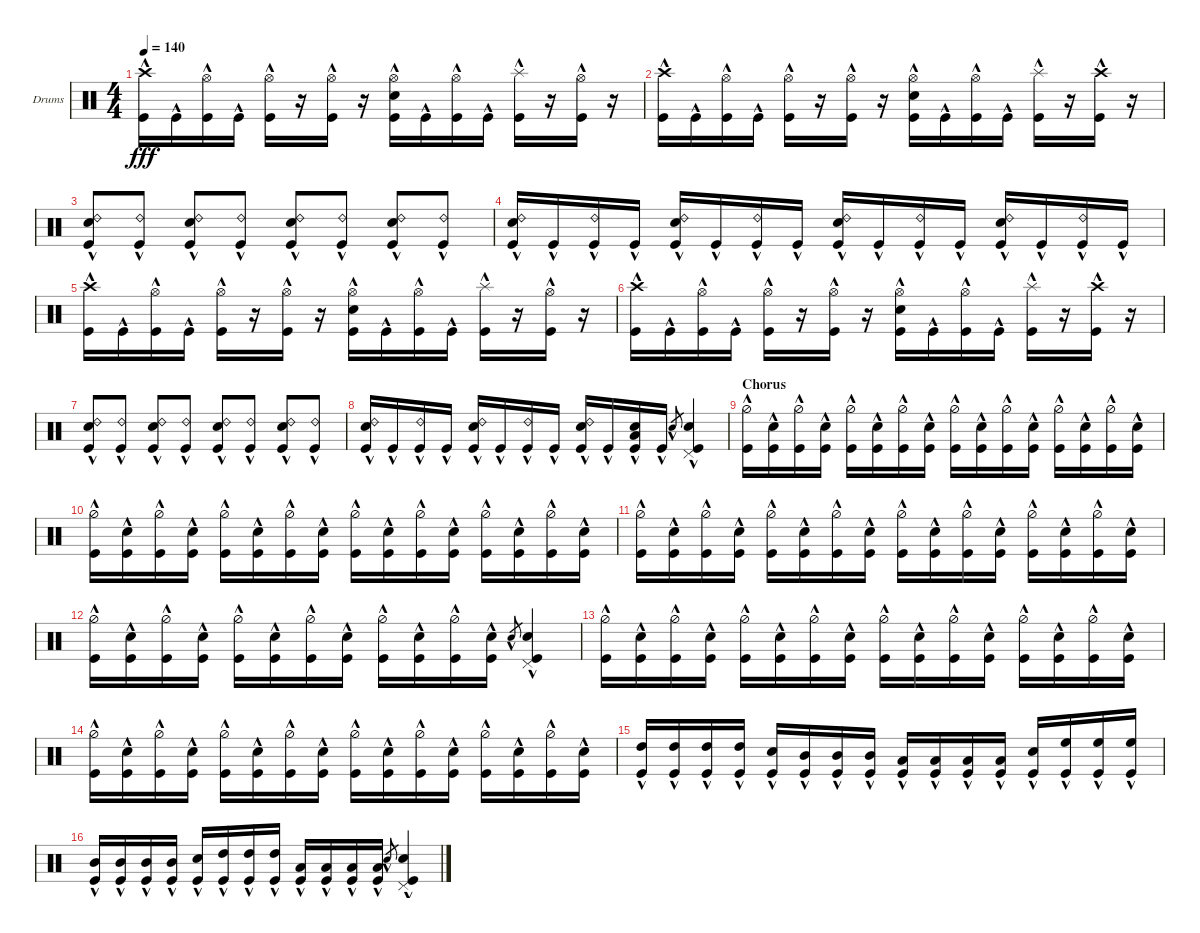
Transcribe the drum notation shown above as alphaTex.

\bracketExtendMode groupsimilarinstruments
\firstSystemTrackNameOrientation horizontal
\otherSystemsTrackNameOrientation horizontal
\track ("BigMc" "Drums") {instrument percussion}
\staff {score}
\articulation defaults
\ts (4 4)
\tempo 140
\clef neutral
\ks c
("Kick (hit)"{hac} "Crash high (hit)"{hac}).16{dy fff} "Kick (hit)"{hac}.16 ("Kick (hit)"{hac} "Hi-Hat (open)"{hac}).16 "Kick (hit)"{hac}.16 ("Kick (hit)"{hac} "Hi-Hat (open)"{hac}).16 r.16 ("Kick (hit)"{hac} "Hi-Hat (open)"{hac}).16 r.16 ("Kick (hit)"{hac} "Snare (hit) 2"{hac} "Hi-Hat (open)"{hac}).16 "Kick (hit)"{hac}.16 ("Kick (hit)"{hac} "Hi-Hat (open)"{hac}).16 "Kick (hit)"{hac}.16 ("Kick (hit)"{hac} "Splash (hit)"{hac}).16 r.16 ("Kick (hit)"{hac} "Hi-Hat (open)"{hac}).16 r.16 |
("Kick (hit)"{hac} "Crash high (hit)"{hac}).16 "Kick (hit)"{hac}.16 ("Kick (hit)"{hac} "Hi-Hat (open)"{hac}).16 "Kick (hit)"{hac}.16 ("Kick (hit)"{hac} "Hi-Hat (open)"{hac}).16 r.16 ("Kick (hit)"{hac} "Hi-Hat (open)"{hac}).16 r.16 ("Kick (hit)"{hac} "Snare (hit) 2"{hac} "Hi-Hat (open)"{hac}).16 "Kick (hit)"{hac}.16 ("Kick (hit)"{hac} "Hi-Hat (open)"{hac}).16 "Kick (hit)"{hac}.16 ("Kick (hit)"{hac} "Splash (hit)"{hac}).16 r.16 ("Kick (hit)"{hac} "Crash high (hit)"{hac}).16 r.16 |
("Kick (hit)"{hac} "Snare (hit) 2"{hac} "Ride (bell) 2"{hac}).8 ("Kick (hit)"{hac} "Ride (bell) 2"{hac}).8 ("Kick (hit)"{hac} "Snare (hit) 2"{hac} "Ride (bell) 2"{hac}).8 ("Kick (hit)"{hac} "Ride (bell) 2"{hac}).8 ("Kick (hit)"{hac} "Snare (hit) 2"{hac} "Ride (bell) 2"{hac}).8 ("Kick (hit)"{hac} "Ride (bell) 2"{hac}).8 ("Kick (hit)"{hac} "Snare (hit) 2"{hac} "Ride (bell) 2"{hac}).8 ("Kick (hit)"{hac} "Ride (bell) 2"{hac}).8 |
("Kick (hit)"{hac} "Snare (hit) 2"{hac} "Ride (bell) 2"{hac}).16 "Kick (hit)"{hac}.16 ("Kick (hit)"{hac} "Ride (bell) 2"{hac}).16 "Kick (hit)"{hac}.16 ("Kick (hit)"{hac} "Snare (hit) 2"{hac} "Ride (bell) 2"{hac}).16 "Kick (hit)"{hac}.16 ("Kick (hit)"{hac} "Ride (bell) 2"{hac}).16 "Kick (hit)"{hac}.16 ("Kick (hit)"{hac} "Snare (hit) 2"{hac} "Ride (bell) 2"{hac}).16 "Kick (hit)"{hac}.16 ("Kick (hit)"{hac} "Ride (bell) 2"{hac}).16 "Kick (hit)"{hac}.16 ("Kick (hit)"{hac} "Snare (hit) 2"{hac} "Ride (bell) 2"{hac}).16 "Kick (hit)"{hac}.16 ("Kick (hit)"{hac} "Ride (bell) 2"{hac}).16 "Kick (hit)"{hac}.16 |
("Kick (hit)"{hac} "Crash high (hit)"{hac}).16 "Kick (hit)"{hac}.16 ("Kick (hit)"{hac} "Hi-Hat (open)"{hac}).16 "Kick (hit)"{hac}.16 ("Kick (hit)"{hac} "Hi-Hat (open)"{hac}).16 r.16 ("Kick (hit)"{hac} "Hi-Hat (open)"{hac}).16 r.16 ("Kick (hit)"{hac} "Snare (hit) 2"{hac} "Hi-Hat (open)"{hac}).16 "Kick (hit)"{hac}.16 ("Kick (hit)"{hac} "Hi-Hat (open)"{hac}).16 "Kick (hit)"{hac}.16 ("Kick (hit)"{hac} "Splash (hit)"{hac}).16 r.16 ("Kick (hit)"{hac} "Hi-Hat (open)"{hac}).16 r.16 |
("Kick (hit)"{hac} "Crash high (hit)"{hac}).16 "Kick (hit)"{hac}.16 ("Kick (hit)"{hac} "Hi-Hat (open)"{hac}).16 "Kick (hit)"{hac}.16 ("Kick (hit)"{hac} "Hi-Hat (open)"{hac}).16 r.16 ("Kick (hit)"{hac} "Hi-Hat (open)"{hac}).16 r.16 ("Kick (hit)"{hac} "Snare (hit) 2"{hac} "Hi-Hat (open)"{hac}).16 "Kick (hit)"{hac}.16 ("Kick (hit)"{hac} "Hi-Hat (open)"{hac}).16 "Kick (hit)"{hac}.16 ("Kick (hit)"{hac} "Splash (hit)"{hac}).16 r.16 ("Kick (hit)"{hac} "Crash high (hit)"{hac}).16 r.16 |
("Kick (hit)"{hac} "Snare (hit) 2"{hac} "Ride (bell) 2"{hac}).8 ("Kick (hit)"{hac} "Ride (bell) 2"{hac}).8 ("Kick (hit)"{hac} "Snare (hit) 2"{hac} "Ride (bell) 2"{hac}).8 ("Kick (hit)"{hac} "Ride (bell) 2"{hac}).8 ("Kick (hit)"{hac} "Snare (hit) 2"{hac} "Ride (bell) 2"{hac}).8 ("Kick (hit)"{hac} "Ride (bell) 2"{hac}).8 ("Kick (hit)"{hac} "Snare (hit) 2"{hac} "Ride (bell) 2"{hac}).8 ("Kick (hit)"{hac} "Ride (bell) 2"{hac}).8 |
("Kick (hit)"{hac} "Snare (hit) 2"{hac} "Ride (bell) 2"{hac}).16 "Kick (hit)"{hac}.16 ("Kick (hit)"{hac} "Ride (bell) 2"{hac}).16 "Kick (hit)"{hac}.16 ("Kick (hit)"{hac} "Snare (hit) 2"{hac} "Ride (bell) 2"{hac}).16 "Kick (hit)"{hac}.16 ("Kick (hit)"{hac} "Ride (bell) 2"{hac}).16 "Kick (hit)"{hac}.16 ("Kick (hit)"{hac} "Snare (hit) 2"{hac} "Ride (bell) 2"{hac}).16 "Kick (hit)"{hac}.16 ("Kick (hit)"{hac} "Low Tom (hit)"{hac} "Snare (hit) 2"{hac}).16 "Kick (hit)"{hac}.16 "Snare (hit) 2"{hac}.8{gr} ("Snare (hit) 2"{hac} "Kick (hit)"{hac} "Pedal Hi-Hat (hit)"{hac}).4 |
\section ("" "Chorus")
("Hi-Hat (half)"{hac} "Kick (hit)"{hac}).16 ("Snare (hit) 2"{hac} "Kick (hit)"{hac}).16 ("Hi-Hat (half)"{hac} "Kick (hit)"{hac}).16 ("Snare (hit) 2"{hac} "Kick (hit)"{hac}).16 ("Hi-Hat (half)"{hac} "Kick (hit)"{hac}).16 ("Snare (hit) 2"{hac} "Kick (hit)"{hac}).16 ("Hi-Hat (half)"{hac} "Kick (hit)"{hac}).16 ("Snare (hit) 2"{hac} "Kick (hit)"{hac}).16 ("Hi-Hat (half)"{hac} "Kick (hit)"{hac}).16 ("Snare (hit) 2"{hac} "Kick (hit)"{hac}).16 ("Hi-Hat (half)"{hac} "Kick (hit)"{hac}).16 ("Snare (hit) 2"{hac} "Kick (hit)"{hac}).16 ("Hi-Hat (half)"{hac} "Kick (hit)"{hac}).16 ("Snare (hit) 2"{hac} "Kick (hit)"{hac}).16 ("Hi-Hat (half)"{hac} "Kick (hit)"{hac}).16 ("Snare (hit) 2"{hac} "Kick (hit)"{hac}).16 |
("Hi-Hat (half)"{hac} "Kick (hit)"{hac}).16 ("Snare (hit) 2"{hac} "Kick (hit)"{hac}).16 ("Hi-Hat (half)"{hac} "Kick (hit)"{hac}).16 ("Snare (hit) 2"{hac} "Kick (hit)"{hac}).16 ("Hi-Hat (half)"{hac} "Kick (hit)"{hac}).16 ("Snare (hit) 2"{hac} "Kick (hit)"{hac}).16 ("Hi-Hat (half)"{hac} "Kick (hit)"{hac}).16 ("Snare (hit) 2"{hac} "Kick (hit)"{hac}).16 ("Hi-Hat (half)"{hac} "Kick (hit)"{hac}).16 ("Snare (hit) 2"{hac} "Kick (hit)"{hac}).16 ("Hi-Hat (half)"{hac} "Kick (hit)"{hac}).16 ("Snare (hit) 2"{hac} "Kick (hit)"{hac}).16 ("Hi-Hat (half)"{hac} "Kick (hit)"{hac}).16 ("Snare (hit) 2"{hac} "Kick (hit)"{hac}).16 ("Hi-Hat (half)"{hac} "Kick (hit)"{hac}).16 ("Snare (hit) 2"{hac} "Kick (hit)"{hac}).16 |
("Hi-Hat (half)"{hac} "Kick (hit)"{hac}).16 ("Snare (hit) 2"{hac} "Kick (hit)"{hac}).16 ("Hi-Hat (half)"{hac} "Kick (hit)"{hac}).16 ("Snare (hit) 2"{hac} "Kick (hit)"{hac}).16 ("Hi-Hat (half)"{hac} "Kick (hit)"{hac}).16 ("Snare (hit) 2"{hac} "Kick (hit)"{hac}).16 ("Hi-Hat (half)"{hac} "Kick (hit)"{hac}).16 ("Snare (hit) 2"{hac} "Kick (hit)"{hac}).16 ("Hi-Hat (half)"{hac} "Kick (hit)"{hac}).16 ("Snare (hit) 2"{hac} "Kick (hit)"{hac}).16 ("Hi-Hat (half)"{hac} "Kick (hit)"{hac}).16 ("Snare (hit) 2"{hac} "Kick (hit)"{hac}).16 ("Hi-Hat (half)"{hac} "Kick (hit)"{hac}).16 ("Snare (hit) 2"{hac} "Kick (hit)"{hac}).16 ("Hi-Hat (half)"{hac} "Kick (hit)"{hac}).16 ("Snare (hit) 2"{hac} "Kick (hit)"{hac}).16 |
("Hi-Hat (half)"{hac} "Kick (hit)"{hac}).16 ("Snare (hit) 2"{hac} "Kick (hit)"{hac}).16 ("Hi-Hat (half)"{hac} "Kick (hit)"{hac}).16 ("Snare (hit) 2"{hac} "Kick (hit)"{hac}).16 ("Hi-Hat (half)"{hac} "Kick (hit)"{hac}).16 ("Snare (hit) 2"{hac} "Kick (hit)"{hac}).16 ("Hi-Hat (half)"{hac} "Kick (hit)"{hac}).16 ("Snare (hit) 2"{hac} "Kick (hit)"{hac}).16 ("Hi-Hat (half)"{hac} "Kick (hit)"{hac}).16 ("Snare (hit) 2"{hac} "Kick (hit)"{hac}).16 ("Hi-Hat (half)"{hac} "Kick (hit)"{hac}).16 ("Snare (hit) 2"{hac} "Kick (hit)"{hac}).16 "Snare (hit) 2"{hac}.8{gr} ("Snare (hit) 2"{hac} "Pedal Hi-Hat (hit)"{hac} "Kick (hit)"{hac}).4 |
("Hi-Hat (half)"{hac} "Kick (hit)"{hac}).16 ("Snare (hit) 2"{hac} "Kick (hit)"{hac}).16 ("Hi-Hat (half)"{hac} "Kick (hit)"{hac}).16 ("Snare (hit) 2"{hac} "Kick (hit)"{hac}).16 ("Hi-Hat (half)"{hac} "Kick (hit)"{hac}).16 ("Snare (hit) 2"{hac} "Kick (hit)"{hac}).16 ("Hi-Hat (half)"{hac} "Kick (hit)"{hac}).16 ("Snare (hit) 2"{hac} "Kick (hit)"{hac}).16 ("Hi-Hat (half)"{hac} "Kick (hit)"{hac}).16 ("Snare (hit) 2"{hac} "Kick (hit)"{hac}).16 ("Hi-Hat (half)"{hac} "Kick (hit)"{hac}).16 ("Snare (hit) 2"{hac} "Kick (hit)"{hac}).16 ("Hi-Hat (half)"{hac} "Kick (hit)"{hac}).16 ("Snare (hit) 2"{hac} "Kick (hit)"{hac}).16 ("Hi-Hat (half)"{hac} "Kick (hit)"{hac}).16 ("Snare (hit) 2"{hac} "Kick (hit)"{hac}).16 |
("Hi-Hat (half)"{hac} "Kick (hit)"{hac}).16 ("Snare (hit) 2"{hac} "Kick (hit)"{hac}).16 ("Hi-Hat (half)"{hac} "Kick (hit)"{hac}).16 ("Snare (hit) 2"{hac} "Kick (hit)"{hac}).16 ("Hi-Hat (half)"{hac} "Kick (hit)"{hac}).16 ("Snare (hit) 2"{hac} "Kick (hit)"{hac}).16 ("Hi-Hat (half)"{hac} "Kick (hit)"{hac}).16 ("Snare (hit) 2"{hac} "Kick (hit)"{hac}).16 ("Hi-Hat (half)"{hac} "Kick (hit)"{hac}).16 ("Snare (hit) 2"{hac} "Kick (hit)"{hac}).16 ("Hi-Hat (half)"{hac} "Kick (hit)"{hac}).16 ("Snare (hit) 2"{hac} "Kick (hit)"{hac}).16 ("Hi-Hat (half)"{hac} "Kick (hit)"{hac}).16 ("Snare (hit) 2"{hac} "Kick (hit)"{hac}).16 ("Hi-Hat (half)"{hac} "Kick (hit)"{hac}).16 ("Snare (hit) 2"{hac} "Kick (hit)"{hac}).16 |
("Kick (hit)"{hac} "High Tom (hit)"{hac}).16 ("Kick (hit)"{hac} "High Tom (hit)"{hac}).16 ("Kick (hit)"{hac} "High Tom (hit)"{hac}).16 ("Kick (hit)"{hac} "High Tom (hit)"{hac}).16 ("Kick (hit)"{hac} "Snare (hit) 2"{hac}).16 ("Kick (hit)"{hac} "Mid Tom (hit)"{hac}).16 ("Kick (hit)"{hac} "Mid Tom (hit)"{hac}).16 ("Kick (hit)"{hac} "Mid Tom (hit)"{hac}).16 ("Kick (hit)"{hac} "Low Tom (hit)"{hac}).16 ("Kick (hit)"{hac} "Low Tom (hit)"{hac}).16 ("Kick (hit)"{hac} "Low Tom (hit)"{hac}).16 ("Kick (hit)"{hac} "Low Tom (hit)"{hac}).16 ("Kick (hit)"{hac} "Snare (hit) 2"{hac}).16 ("Kick (hit)"{hac} "High Floor Tom (hit)"{hac}).16 ("Kick (hit)"{hac} "High Floor Tom (hit)"{hac}).16 ("Kick (hit)"{hac} "High Floor Tom (hit)"{hac}).16 |
("Kick (hit)"{hac} "Mid Tom (hit)"{hac}).16 ("Kick (hit)"{hac} "Mid Tom (hit)"{hac}).16 ("Kick (hit)"{hac} "Mid Tom (hit)"{hac}).16 ("Kick (hit)"{hac} "Mid Tom (hit)"{hac}).16 ("Kick (hit)"{hac} "Snare (hit) 2"{hac}).16 ("Kick (hit)"{hac} "High Tom (hit)"{hac}).16 ("Kick (hit)"{hac} "High Tom (hit)"{hac}).16 ("Kick (hit)"{hac} "High Tom (hit)"{hac}).16 ("Kick (hit)"{hac} "Low Tom (hit)"{hac}).16 ("Kick (hit)"{hac} "Low Tom (hit)"{hac}).16 ("Kick (hit)"{hac} "Low Tom (hit)"{hac}).16 ("Kick (hit)"{hac} "Low Tom (hit)"{hac}).16 "Snare (hit) 2"{hac}.8{gr} ("Snare (hit) 2"{hac} "Kick (hit)"{hac} "Pedal Hi-Hat (hit)"{hac}).4
